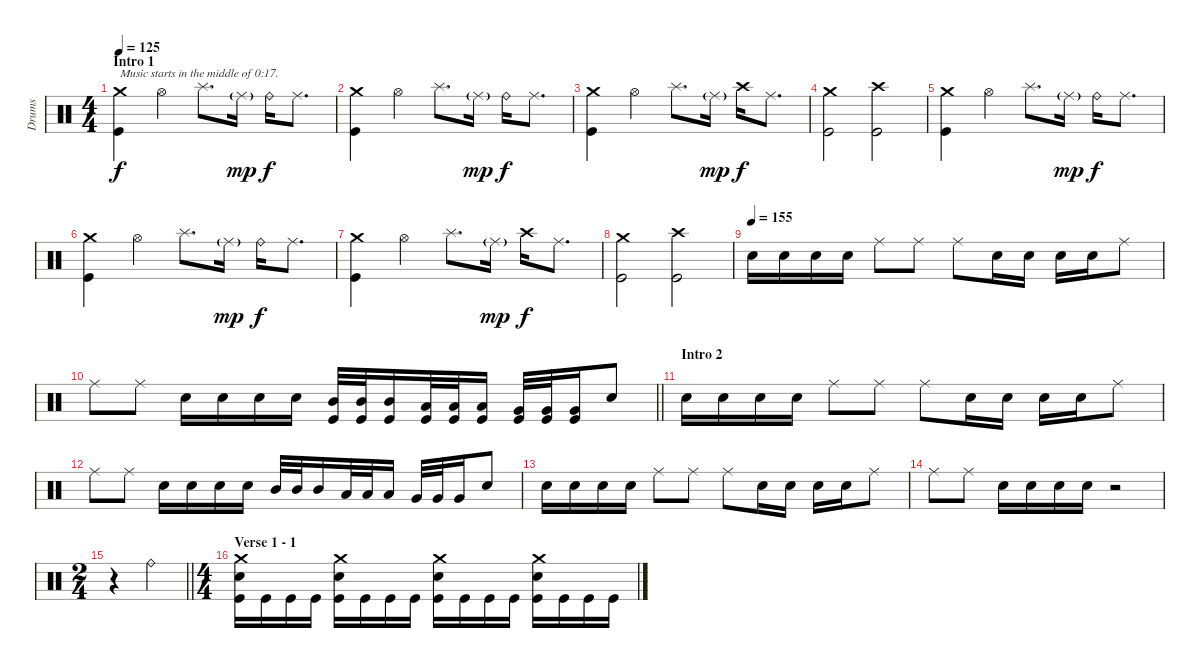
\track ("Drums" "Drums") {instrument percussion}
\staff {score}
\articulation defaults
\ts (4 4)
\section ("" "Intro 1")
\tempo 125
\clef neutral
\ks c
("Crash medium (hit)" "Kick (hit)").4{txt "Music starts in the middle of 0:17." dy f} "Hi-Hat (open)".4 "Splash (hit)".8{d} "Ride (middle)"{g}.16{dy mp} "Ride (bell)".16{dy f} "Ride (middle)".8{d} |
("Crash medium (hit)" "Kick (hit)").4 "Hi-Hat (open)".4 "Splash (hit)".8{d} "Ride (middle)"{g}.16{dy mp} "Ride (bell)".16{dy f} "Ride (middle)".8{d} |
("Crash medium (hit)" "Kick (hit)").4 "Hi-Hat (open)".4 "Splash (hit)".8{d} "Ride (middle)"{g}.16{dy mp} "Crash high (hit)".16{dy f} "Ride (middle)".8{d} |
("Crash medium (hit)" "Kick (hit)").2 ("Crash high (hit)" "Kick (hit)").2 |
("Crash medium (hit)" "Kick (hit)").4 "Hi-Hat (open)".4 "Splash (hit)".8{d} "Ride (middle)"{g}.16{dy mp} "Ride (bell)".16{dy f} "Ride (middle)".8{d} |
("Crash medium (hit)" "Kick (hit)").4 "Hi-Hat (open)".4 "Splash (hit)".8{d} "Ride (middle)"{g}.16{dy mp} "Ride (bell)".16{dy f} "Ride (middle)".8{d} |
("Crash medium (hit)" "Kick (hit)").4 "Hi-Hat (open)".4 "Splash (hit)".8{d} "Ride (middle)"{g}.16{dy mp} "Crash high (hit)".16{dy f} "Ride (middle)".8{d} |
("Crash medium (hit)" "Kick (hit)").2 ("Crash high (hit)" "Kick (hit)").2 |
\tempo (155)
"Snare (hit) 2".16 "Snare (hit) 2".16 "Snare (hit) 2".16 "Snare (hit) 2".16 "Ride (middle)".8 "Ride (middle)".8 "Ride (middle)".8 "Snare (hit) 2".16 "Snare (hit) 2".16 "Snare (hit) 2".16 "Snare (hit) 2".16 "Ride (middle)".8 |
\barLineRight lightlight "Ride (middle)".8 "Ride (middle)".8 "Snare (hit) 2".16 "Snare (hit) 2".16 "Snare (hit) 2".16 "Snare (hit) 2".16
("Mid Tom (hit)" "Kick (hit)").32 ("Mid Tom (hit)" "Kick (hit)").32 ("Mid Tom (hit)" "Kick (hit)").16 ("Low Tom (hit)" "Kick (hit)").32 ("Low Tom (hit)" "Kick (hit)").32 ("Low Tom (hit)" "Kick (hit)").16 ("Very Low Tom (hit)" "Kick (hit)").32 ("Very Low Tom (hit)" "Kick (hit)").32 ("Very Low Tom (hit)" "Kick (hit)").16 "Snare (hit) 2".8 |
\section ("" "Intro 2")
"Snare (hit) 2".16 "Snare (hit) 2".16 "Snare (hit) 2".16 "Snare (hit) 2".16 "Ride (middle)".8 "Ride (middle)".8 "Ride (middle)".8 "Snare (hit) 2".16 "Snare (hit) 2".16 "Snare (hit) 2".16 "Snare (hit) 2".16 "Ride (middle)".8 |
"Ride (middle)".8 "Ride (middle)".8 "Snare (hit) 2".16 "Snare (hit) 2".16 "Snare (hit) 2".16 "Snare (hit) 2".16 "Mid Tom (hit)".32 "Mid Tom (hit)".32 "Mid Tom (hit)".16 "Low Tom (hit)".32 "Low Tom (hit)".32 "Low Tom (hit)".16 "Very Low Tom (hit)".32 "Very Low Tom (hit)".32 "Very Low Tom (hit)".16 "Snare (hit) 2".8 |
"Snare (hit) 2".16 "Snare (hit) 2".16 "Snare (hit) 2".16 "Snare (hit) 2".16 "Ride (middle)".8 "Ride (middle)".8 "Ride (middle)".8 "Snare (hit) 2".16 "Snare (hit) 2".16 "Snare (hit) 2".16 "Snare (hit) 2".16 "Ride (middle)".8 |
"Ride (middle)".8 "Ride (middle)".8 "Snare (hit) 2".16 "Snare (hit) 2".16 "Snare (hit) 2".16 "Snare (hit) 2".16 r.2 |
\ts (2 4)
\barLineRight lightlight
r.4 "Ride (bell)".4 |
\ts (4 4)
\section ("" "Verse 1 - 1")
("Crash medium (hit)" "Snare (hit) 2" "Kick (hit)").16 "Kick (hit)".16 "Kick (hit)".16 "Kick (hit)".16 ("Crash medium (hit)" "Snare (hit) 2" "Kick (hit)").16 "Kick (hit)".16 "Kick (hit)".16 "Kick (hit)".16 ("Crash medium (hit)" "Snare (hit) 2" "Kick (hit)").16 "Kick (hit)".16 "Kick (hit)".16 "Kick (hit)".16 ("Crash medium (hit)" "Snare (hit) 2" "Kick (hit)").16 "Kick (hit)".16 "Kick (hit)".16 "Kick (hit)".16
